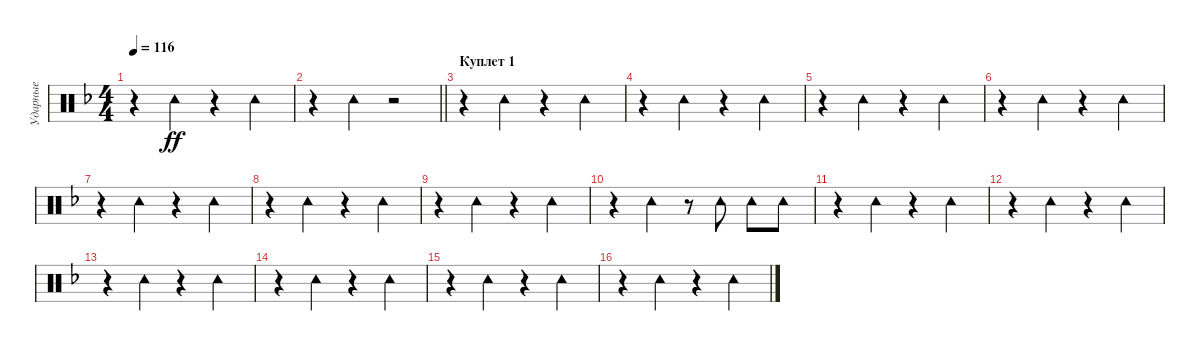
\track ("Ударные" "Ударные") {instrument percussion}
\staff {score}
\articulation defaults
\ts (4 4)
\tempo 116
\clef neutral
\ks dminor
r.4{dy ff} "Tambourine (hit)".4 r.4 "Tambourine (hit)".4 |
\barLineRight lightlight
r.4 "Tambourine (hit)".4 r.2 |
\section ("" "Куплет 1")
r.4 "Tambourine (hit)".4 r.4 "Tambourine (hit)".4 |
r.4 "Tambourine (hit)".4 r.4 "Tambourine (hit)".4 |
r.4 "Tambourine (hit)".4 r.4 "Tambourine (hit)".4 |
r.4 "Tambourine (hit)".4 r.4 "Tambourine (hit)".4 |
r.4 "Tambourine (hit)".4 r.4 "Tambourine (hit)".4 |
r.4 "Tambourine (hit)".4 r.4 "Tambourine (hit)".4 |
r.4 "Tambourine (hit)".4 r.4 "Tambourine (hit)".4 |
r.4 "Tambourine (hit)".4 r.8 "Tambourine (hit)".8 "Tambourine (hit)".8 "Tambourine (hit)".8 |
r.4 "Tambourine (hit)".4 r.4 "Tambourine (hit)".4 |
r.4 "Tambourine (hit)".4 r.4 "Tambourine (hit)".4 |
r.4 "Tambourine (hit)".4 r.4 "Tambourine (hit)".4 |
r.4 "Tambourine (hit)".4 r.4 "Tambourine (hit)".4 |
r.4 "Tambourine (hit)".4 r.4 "Tambourine (hit)".4 |
r.4 "Tambourine (hit)".4 r.4 "Tambourine (hit)".4
